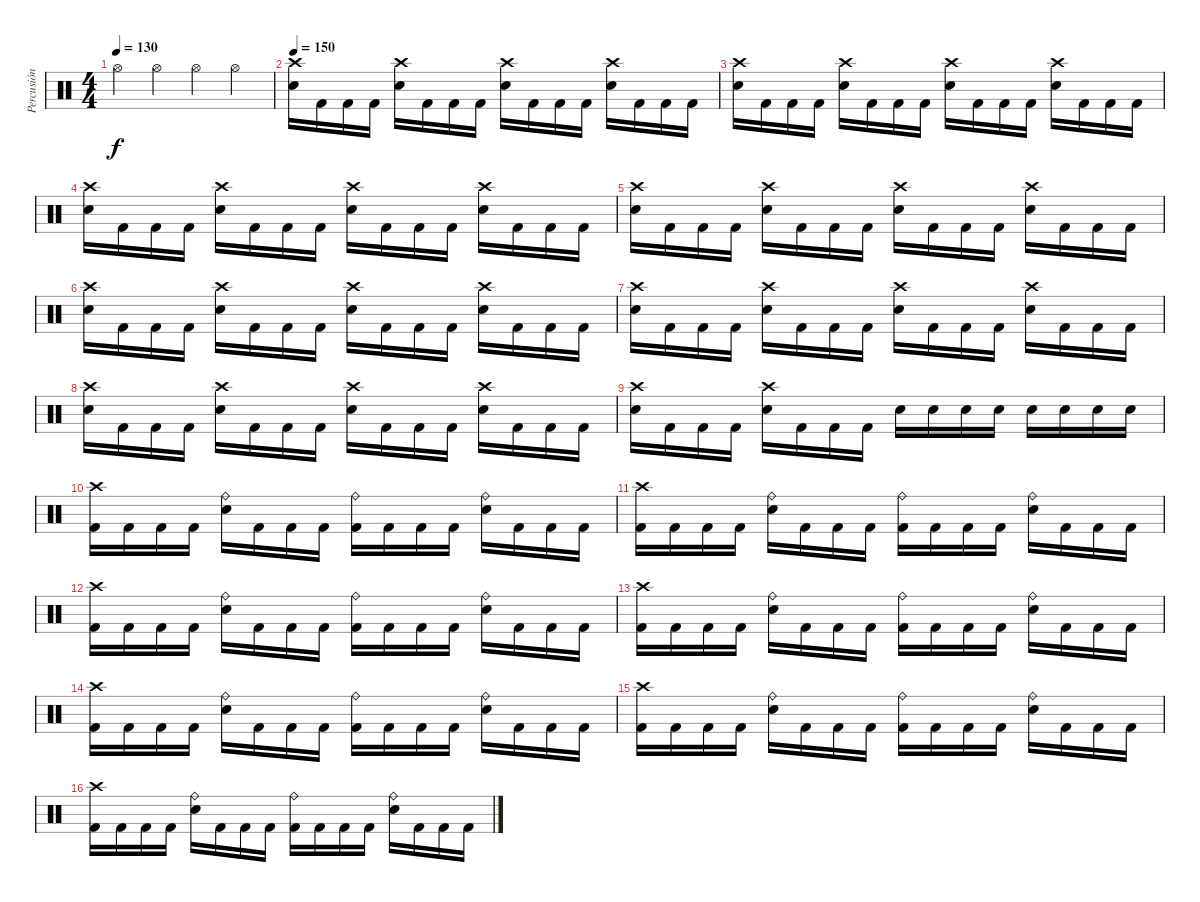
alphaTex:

\track ("Percusión" "Percusión") {instrument percussion}
\staff {score}
\articulation defaults
\ts (4 4)
\tempo 130
\clef neutral
\ks c "Hi-Hat (open)".4{dy f} "Hi-Hat (open)".4 "Hi-Hat (open)".4 "Hi-Hat (open)".4
|
\tempo 150
("Crash high (hit)" "Electric Snare (hit)").16 "Kick (hit) 2".16 "Kick (hit) 2".16 "Kick (hit) 2".16 ("Crash high (hit)" "Electric Snare (hit)").16 "Kick (hit) 2".16 "Kick (hit) 2".16 "Kick (hit) 2".16 ("Crash high (hit)" "Electric Snare (hit)").16 "Kick (hit) 2".16 "Kick (hit) 2".16 "Kick (hit) 2".16 ("Crash high (hit)" "Electric Snare (hit)").16 "Kick (hit) 2".16 "Kick (hit) 2".16 "Kick (hit) 2".16 |
("Crash high (hit)" "Electric Snare (hit)").16 "Kick (hit) 2".16 "Kick (hit) 2".16 "Kick (hit) 2".16 ("Crash high (hit)" "Electric Snare (hit)").16 "Kick (hit) 2".16 "Kick (hit) 2".16 "Kick (hit) 2".16 ("Crash high (hit)" "Electric Snare (hit)").16 "Kick (hit) 2".16 "Kick (hit) 2".16 "Kick (hit) 2".16 ("Crash high (hit)" "Electric Snare (hit)").16 "Kick (hit) 2".16 "Kick (hit) 2".16 "Kick (hit) 2".16 |
("Crash high (hit)" "Electric Snare (hit)").16 "Kick (hit) 2".16 "Kick (hit) 2".16 "Kick (hit) 2".16 ("Crash high (hit)" "Electric Snare (hit)").16 "Kick (hit) 2".16 "Kick (hit) 2".16 "Kick (hit) 2".16 ("Crash high (hit)" "Electric Snare (hit)").16 "Kick (hit) 2".16 "Kick (hit) 2".16 "Kick (hit) 2".16 ("Crash high (hit)" "Electric Snare (hit)").16 "Kick (hit) 2".16 "Kick (hit) 2".16 "Kick (hit) 2".16 |
("Crash high (hit)" "Electric Snare (hit)").16 "Kick (hit) 2".16 "Kick (hit) 2".16 "Kick (hit) 2".16 ("Crash high (hit)" "Electric Snare (hit)").16 "Kick (hit) 2".16 "Kick (hit) 2".16 "Kick (hit) 2".16 ("Crash high (hit)" "Electric Snare (hit)").16 "Kick (hit) 2".16 "Kick (hit) 2".16 "Kick (hit) 2".16 ("Crash high (hit)" "Electric Snare (hit)").16 "Kick (hit) 2".16 "Kick (hit) 2".16 "Kick (hit) 2".16 |
("Crash high (hit)" "Electric Snare (hit)").16 "Kick (hit) 2".16 "Kick (hit) 2".16 "Kick (hit) 2".16 ("Crash high (hit)" "Electric Snare (hit)").16 "Kick (hit) 2".16 "Kick (hit) 2".16 "Kick (hit) 2".16 ("Crash high (hit)" "Electric Snare (hit)").16 "Kick (hit) 2".16 "Kick (hit) 2".16 "Kick (hit) 2".16 ("Crash high (hit)" "Electric Snare (hit)").16 "Kick (hit) 2".16 "Kick (hit) 2".16 "Kick (hit) 2".16 |
("Crash high (hit)" "Electric Snare (hit)").16 "Kick (hit) 2".16 "Kick (hit) 2".16 "Kick (hit) 2".16 ("Crash high (hit)" "Electric Snare (hit)").16 "Kick (hit) 2".16 "Kick (hit) 2".16 "Kick (hit) 2".16 ("Crash high (hit)" "Electric Snare (hit)").16 "Kick (hit) 2".16 "Kick (hit) 2".16 "Kick (hit) 2".16 ("Crash high (hit)" "Electric Snare (hit)").16 "Kick (hit) 2".16 "Kick (hit) 2".16 "Kick (hit) 2".16 |
("Crash high (hit)" "Electric Snare (hit)").16 "Kick (hit) 2".16 "Kick (hit) 2".16 "Kick (hit) 2".16 ("Crash high (hit)" "Electric Snare (hit)").16 "Kick (hit) 2".16 "Kick (hit) 2".16 "Kick (hit) 2".16 ("Crash high (hit)" "Electric Snare (hit)").16 "Kick (hit) 2".16 "Kick (hit) 2".16 "Kick (hit) 2".16 ("Crash high (hit)" "Electric Snare (hit)").16 "Kick (hit) 2".16 "Kick (hit) 2".16 "Kick (hit) 2".16 |
("Crash high (hit)" "Electric Snare (hit)").16 "Kick (hit) 2".16 "Kick (hit) 2".16 "Kick (hit) 2".16 ("Crash high (hit)" "Electric Snare (hit)").16 "Kick (hit) 2".16 "Kick (hit) 2".16 "Kick (hit) 2".16 "Electric Snare (hit)".16 "Electric Snare (hit)".16 "Electric Snare (hit)".16 "Electric Snare (hit)".16 "Electric Snare (hit)".16 "Electric Snare (hit)".16 "Electric Snare (hit)".16 "Electric Snare (hit)".16 |
("Crash high (hit)" "Kick (hit) 2").16 "Kick (hit) 2".16 "Kick (hit) 2".16 "Kick (hit) 2".16 ("Ride (bell)" "Electric Snare (hit)").16 "Kick (hit) 2".16 "Kick (hit) 2".16 "Kick (hit) 2".16 ("Ride (bell)" "Kick (hit) 2").16 "Kick (hit) 2".16 "Kick (hit) 2".16 "Kick (hit) 2".16 ("Ride (bell)" "Electric Snare (hit)").16 "Kick (hit) 2".16 "Kick (hit) 2".16 "Kick (hit) 2".16 |
("Crash high (hit)" "Kick (hit) 2").16 "Kick (hit) 2".16 "Kick (hit) 2".16 "Kick (hit) 2".16 ("Ride (bell)" "Electric Snare (hit)").16 "Kick (hit) 2".16 "Kick (hit) 2".16 "Kick (hit) 2".16 ("Ride (bell)" "Kick (hit) 2").16 "Kick (hit) 2".16 "Kick (hit) 2".16 "Kick (hit) 2".16 ("Ride (bell)" "Electric Snare (hit)").16 "Kick (hit) 2".16 "Kick (hit) 2".16 "Kick (hit) 2".16 |
("Crash high (hit)" "Kick (hit) 2").16 "Kick (hit) 2".16 "Kick (hit) 2".16 "Kick (hit) 2".16 ("Ride (bell)" "Electric Snare (hit)").16 "Kick (hit) 2".16 "Kick (hit) 2".16 "Kick (hit) 2".16 ("Ride (bell)" "Kick (hit) 2").16 "Kick (hit) 2".16 "Kick (hit) 2".16 "Kick (hit) 2".16 ("Ride (bell)" "Electric Snare (hit)").16 "Kick (hit) 2".16 "Kick (hit) 2".16 "Kick (hit) 2".16 |
("Crash high (hit)" "Kick (hit) 2").16 "Kick (hit) 2".16 "Kick (hit) 2".16 "Kick (hit) 2".16 ("Ride (bell)" "Electric Snare (hit)").16 "Kick (hit) 2".16 "Kick (hit) 2".16 "Kick (hit) 2".16 ("Ride (bell)" "Kick (hit) 2").16 "Kick (hit) 2".16 "Kick (hit) 2".16 "Kick (hit) 2".16 ("Ride (bell)" "Electric Snare (hit)").16 "Kick (hit) 2".16 "Kick (hit) 2".16 "Kick (hit) 2".16 |
("Crash high (hit)" "Kick (hit) 2").16 "Kick (hit) 2".16 "Kick (hit) 2".16 "Kick (hit) 2".16 ("Ride (bell)" "Electric Snare (hit)").16 "Kick (hit) 2".16 "Kick (hit) 2".16 "Kick (hit) 2".16 ("Ride (bell)" "Kick (hit) 2").16 "Kick (hit) 2".16 "Kick (hit) 2".16 "Kick (hit) 2".16 ("Ride (bell)" "Electric Snare (hit)").16 "Kick (hit) 2".16 "Kick (hit) 2".16 "Kick (hit) 2".16 |
("Crash high (hit)" "Kick (hit) 2").16 "Kick (hit) 2".16 "Kick (hit) 2".16 "Kick (hit) 2".16 ("Ride (bell)" "Electric Snare (hit)").16 "Kick (hit) 2".16 "Kick (hit) 2".16 "Kick (hit) 2".16 ("Ride (bell)" "Kick (hit) 2").16 "Kick (hit) 2".16 "Kick (hit) 2".16 "Kick (hit) 2".16 ("Ride (bell)" "Electric Snare (hit)").16 "Kick (hit) 2".16 "Kick (hit) 2".16 "Kick (hit) 2".16 |
("Crash high (hit)" "Kick (hit) 2").16 "Kick (hit) 2".16 "Kick (hit) 2".16 "Kick (hit) 2".16 ("Ride (bell)" "Electric Snare (hit)").16 "Kick (hit) 2".16 "Kick (hit) 2".16 "Kick (hit) 2".16 ("Ride (bell)" "Kick (hit) 2").16 "Kick (hit) 2".16 "Kick (hit) 2".16 "Kick (hit) 2".16 ("Ride (bell)" "Electric Snare (hit)").16 "Kick (hit) 2".16 "Kick (hit) 2".16 "Kick (hit) 2".16
